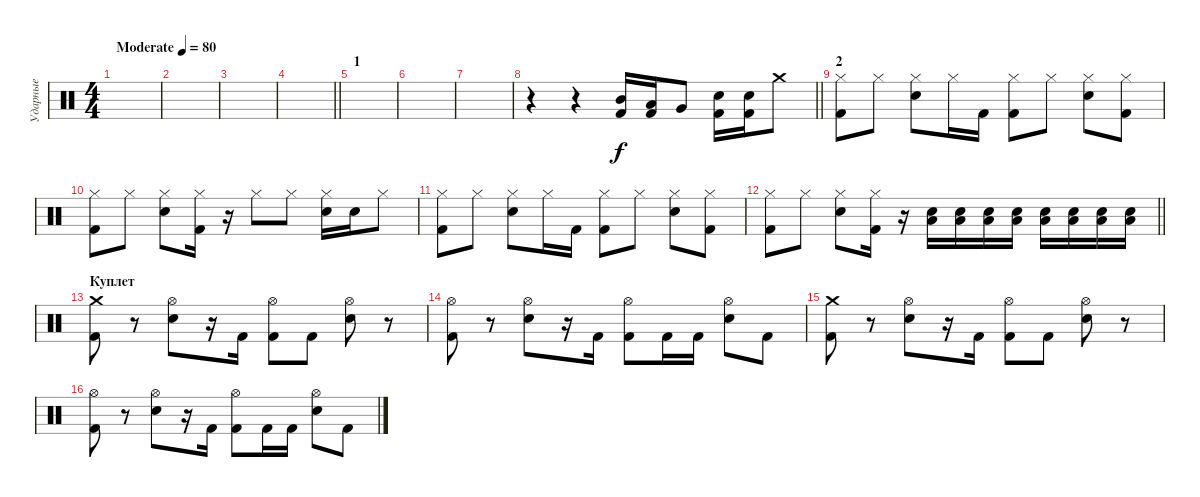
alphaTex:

\track ("Ударные" "Ударные") {instrument percussion}
\staff {score}
\articulation defaults
\ts (4 4)
\tempo (80 "Moderate")
\clef neutral
\ks c
|
|
|
\barLineRight lightlight
|
\section ("" "1")
|
|
|
\barLineRight lightlight
r.4 r.4 ("Mid Tom (hit)" "Kick (hit) 2").16 ("Low Tom (hit)" "Kick (hit) 2").16 "Very Low Tom (hit)".8 ("Electric Snare (hit)" "Kick (hit) 2").16 ("Electric Snare (hit)" "Kick (hit) 2").16 "Crash medium (hit)".8 |
\section ("" "2")
("Hi-Hat (closed)" "Kick (hit) 2").8 "Hi-Hat (closed)".8 ("Electric Snare (hit)" "Hi-Hat (closed)").8 "Hi-Hat (closed)".16 "Kick (hit) 2".16 ("Kick (hit) 2" "Hi-Hat (closed)").8 "Hi-Hat (closed)".8 ("Electric Snare (hit)" "Hi-Hat (closed)").8 ("Kick (hit) 2" "Hi-Hat (closed)").8 |
("Hi-Hat (closed)" "Kick (hit) 2").8 "Hi-Hat (closed)".8 ("Electric Snare (hit)" "Hi-Hat (closed)").8 ("Hi-Hat (closed)" "Kick (hit) 2").16 r.16 "Hi-Hat (closed)".8 "Hi-Hat (closed)".8 ("Electric Snare (hit)" "Hi-Hat (closed)").16 "Electric Snare (hit)".16 "Hi-Hat (closed)".8 |
("Hi-Hat (closed)" "Kick (hit) 2").8 "Hi-Hat (closed)".8 ("Electric Snare (hit)" "Hi-Hat (closed)").8 "Hi-Hat (closed)".16 "Kick (hit) 2".16 ("Kick (hit) 2" "Hi-Hat (closed)").8 "Hi-Hat (closed)".8 ("Electric Snare (hit)" "Hi-Hat (closed)").8 ("Kick (hit) 2" "Hi-Hat (closed)").8 |
\barLineRight lightlight
("Hi-Hat (closed)" "Kick (hit) 2").8 "Hi-Hat (closed)".8 ("Electric Snare (hit)" "Hi-Hat (closed)").8 ("Hi-Hat (closed)" "Kick (hit) 2").16 r.16 ("Electric Snare (hit)" "Low Floor Tom (hit)").16 ("Electric Snare (hit)" "Low Floor Tom (hit)").16 ("Electric Snare (hit)" "Low Floor Tom (hit)").16 ("Electric Snare (hit)" "Low Floor Tom (hit)").16 ("Electric Snare (hit)" "Low Floor Tom (hit)").16 ("Electric Snare (hit)" "Low Floor Tom (hit)").16 ("Electric Snare (hit)" "Low Floor Tom (hit)").16 ("Electric Snare (hit)" "Low Floor Tom (hit)").16 |
\section ("" "Куплет")
("Kick (hit) 2" "Crash medium (hit)").8 r.8 ("Electric Snare (hit)" "Hi-Hat (open)").8 r.16 "Kick (hit) 2".16 ("Kick (hit) 2" "Hi-Hat (open)").8 "Kick (hit) 2".8 ("Electric Snare (hit)" "Hi-Hat (open)").8 r.8 |
("Kick (hit) 2" "Hi-Hat (open)").8 r.8 ("Electric Snare (hit)" "Hi-Hat (open)").8 r.16 "Kick (hit) 2".16 ("Kick (hit) 2" "Hi-Hat (open)").8 "Kick (hit) 2".16 "Kick (hit) 2".16 ("Electric Snare (hit)" "Hi-Hat (open)").8 "Kick (hit) 2".8 |
("Kick (hit) 2" "Crash medium (hit)").8 r.8 ("Electric Snare (hit)" "Hi-Hat (open)").8 r.16 "Kick (hit) 2".16 ("Kick (hit) 2" "Hi-Hat (open)").8 "Kick (hit) 2".8 ("Electric Snare (hit)" "Hi-Hat (open)").8 r.8 |
("Kick (hit) 2" "Hi-Hat (open)").8 r.8 ("Electric Snare (hit)" "Hi-Hat (open)").8 r.16 "Kick (hit) 2".16 ("Kick (hit) 2" "Hi-Hat (open)").8 "Kick (hit) 2".16 "Kick (hit) 2".16 ("Electric Snare (hit)" "Hi-Hat (open)").8 "Kick (hit) 2".8
